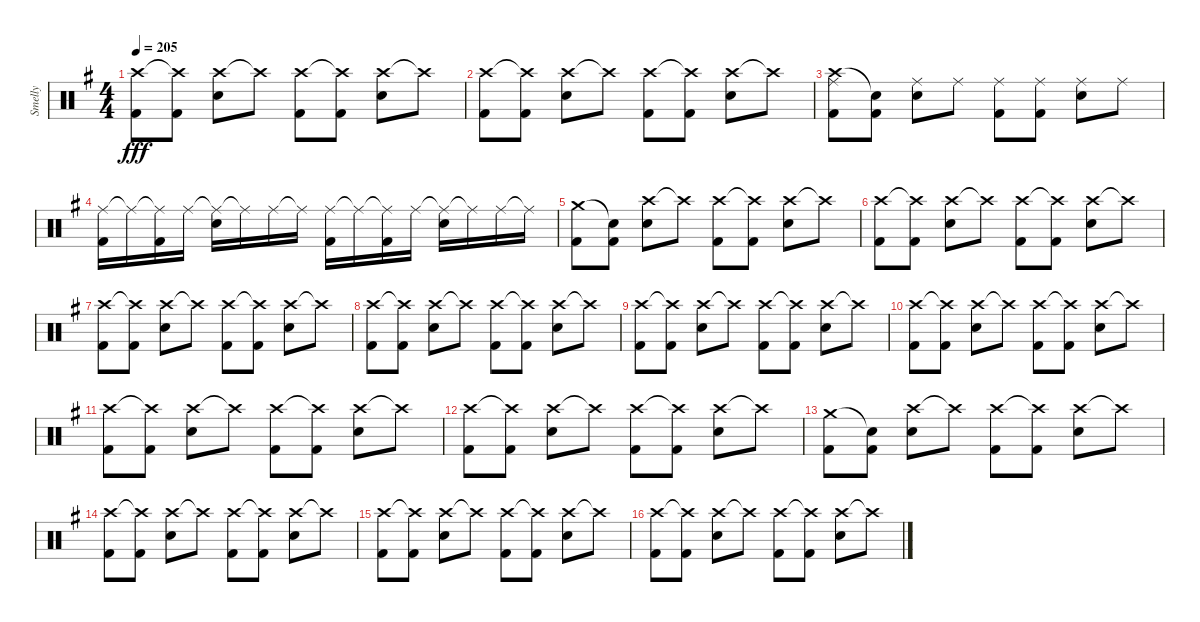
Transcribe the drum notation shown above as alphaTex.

\track ("Smelly" "Smelly") {instrument percussion}
\staff {score}
\articulation defaults
\ts (4 4)
\tempo 205
\clef neutral
\ks eminor
("Crash high (hit)" "Kick (hit) 2").8{dy fff} ("Crash high (hit)"{t} "Kick (hit) 2").8 ("Crash high (hit)" "Electric Snare (hit)").8 "Crash high (hit)"{t}.8 ("Crash high (hit)" "Kick (hit) 2").8 ("Crash high (hit)"{t} "Kick (hit) 2").8 ("Crash high (hit)" "Electric Snare (hit)").8 "Crash high (hit)"{t}.8 |
("Crash high (hit)" "Kick (hit) 2").8 ("Crash high (hit)"{t} "Kick (hit) 2").8 ("Crash high (hit)" "Electric Snare (hit)").8 "Crash high (hit)"{t}.8 ("Crash high (hit)" "Kick (hit) 2").8 ("Crash high (hit)"{t} "Kick (hit) 2").8 ("Crash high (hit)" "Electric Snare (hit)").8 "Crash high (hit)"{t}.8 |
("Crash high (hit)" "Ride (middle)" "Kick (hit) 2").8 ("Snare (hit)"{t} "Kick (hit) 2").8 ("Ride (middle)" "Electric Snare (hit)").8 "Ride (middle)".8 ("Ride (middle)" "Kick (hit) 2").8 ("Ride (middle)" "Kick (hit) 2").8 ("Ride (middle)" "Electric Snare (hit)").8 "Ride (middle)".8 |
("Ride (middle)" "Kick (hit) 2").16 "Ride (middle)"{t}.16 ("Ride (middle)"{t} "Kick (hit) 2").16 "Ride (middle)".16 ("Ride (middle)"{t} "Electric Snare (hit)").16 "Ride (middle)"{t}.16 "Ride (middle)".16 "Ride (middle)"{t}.16 ("Ride (middle)" "Kick (hit) 2").16 "Ride (middle)"{t}.16 ("Ride (middle)"{t} "Kick (hit) 2").16 "Ride (middle)".16 ("Ride (middle)"{t} "Electric Snare (hit)").16 "Ride (middle)"{t}.16 "Ride (middle)".16 "Ride (middle)"{t}.16 |
("Crash medium (hit)" "Kick (hit) 2").8 ("Snare (hit)"{t} "Kick (hit) 2").8 ("Crash high (hit)" "Electric Snare (hit)").8 "Crash high (hit)"{t}.8 ("Crash high (hit)" "Kick (hit) 2").8 ("Crash high (hit)"{t} "Kick (hit) 2").8 ("Crash high (hit)" "Electric Snare (hit)").8 "Crash high (hit)"{t}.8 |
("Crash high (hit)" "Kick (hit) 2").8 ("Crash high (hit)"{t} "Kick (hit) 2").8 ("Crash high (hit)" "Electric Snare (hit)").8 "Crash high (hit)"{t}.8 ("Crash high (hit)" "Kick (hit) 2").8 ("Crash high (hit)"{t} "Kick (hit) 2").8 ("Crash high (hit)" "Electric Snare (hit)").8 "Crash high (hit)"{t}.8 |
("Crash high (hit)" "Kick (hit) 2").8 ("Crash high (hit)"{t} "Kick (hit) 2").8 ("Crash high (hit)" "Electric Snare (hit)").8 "Crash high (hit)"{t}.8 ("Crash high (hit)" "Kick (hit) 2").8 ("Crash high (hit)"{t} "Kick (hit) 2").8 ("Crash high (hit)" "Electric Snare (hit)").8 "Crash high (hit)"{t}.8 |
("Crash high (hit)" "Kick (hit) 2").8 ("Crash high (hit)"{t} "Kick (hit) 2").8 ("Crash high (hit)" "Electric Snare (hit)").8 "Crash high (hit)"{t}.8 ("Crash high (hit)" "Kick (hit) 2").8 ("Crash high (hit)"{t} "Kick (hit) 2").8 ("Crash high (hit)" "Electric Snare (hit)").8 "Crash high (hit)"{t}.8 |
("Crash high (hit)" "Kick (hit) 2").8 ("Crash high (hit)"{t} "Kick (hit) 2").8 ("Crash high (hit)" "Electric Snare (hit)").8 "Crash high (hit)"{t}.8 ("Crash high (hit)" "Kick (hit) 2").8 ("Crash high (hit)"{t} "Kick (hit) 2").8 ("Crash high (hit)" "Electric Snare (hit)").8 "Crash high (hit)"{t}.8 |
("Crash high (hit)" "Kick (hit) 2").8 ("Crash high (hit)"{t} "Kick (hit) 2").8 ("Crash high (hit)" "Electric Snare (hit)").8 "Crash high (hit)"{t}.8 ("Crash high (hit)" "Kick (hit) 2").8 ("Crash high (hit)"{t} "Kick (hit) 2").8 ("Crash high (hit)" "Electric Snare (hit)").8 "Crash high (hit)"{t}.8 |
("Crash high (hit)" "Kick (hit) 2").8 ("Crash high (hit)"{t} "Kick (hit) 2").8 ("Crash high (hit)" "Electric Snare (hit)").8 "Crash high (hit)"{t}.8 ("Crash high (hit)" "Kick (hit) 2").8 ("Crash high (hit)"{t} "Kick (hit) 2").8 ("Crash high (hit)" "Electric Snare (hit)").8 "Crash high (hit)"{t}.8 |
("Crash high (hit)" "Kick (hit) 2").8 ("Crash high (hit)"{t} "Kick (hit) 2").8 ("Crash high (hit)" "Electric Snare (hit)").8 "Crash high (hit)"{t}.8 ("Crash high (hit)" "Kick (hit) 2").8 ("Crash high (hit)"{t} "Kick (hit) 2").8 ("Crash high (hit)" "Electric Snare (hit)").8 "Crash high (hit)"{t}.8 |
("Crash medium (hit)" "Kick (hit) 2").8 ("Snare (hit)"{t} "Kick (hit) 2").8 ("Crash high (hit)" "Electric Snare (hit)").8 "Crash high (hit)"{t}.8 ("Crash high (hit)" "Kick (hit) 2").8 ("Crash high (hit)"{t} "Kick (hit) 2").8 ("Crash high (hit)" "Electric Snare (hit)").8 "Crash high (hit)"{t}.8 |
("Crash high (hit)" "Kick (hit) 2").8 ("Crash high (hit)"{t} "Kick (hit) 2").8 ("Crash high (hit)" "Electric Snare (hit)").8 "Crash high (hit)"{t}.8 ("Crash high (hit)" "Kick (hit) 2").8 ("Crash high (hit)"{t} "Kick (hit) 2").8 ("Crash high (hit)" "Electric Snare (hit)").8 "Crash high (hit)"{t}.8 |
("Crash high (hit)" "Kick (hit) 2").8 ("Crash high (hit)"{t} "Kick (hit) 2").8 ("Crash high (hit)" "Electric Snare (hit)").8 "Crash high (hit)"{t}.8 ("Crash high (hit)" "Kick (hit) 2").8 ("Crash high (hit)"{t} "Kick (hit) 2").8 ("Crash high (hit)" "Electric Snare (hit)").8 "Crash high (hit)"{t}.8 |
("Crash high (hit)" "Kick (hit) 2").8 ("Crash high (hit)"{t} "Kick (hit) 2").8 ("Crash high (hit)" "Electric Snare (hit)").8 "Crash high (hit)"{t}.8 ("Crash high (hit)" "Kick (hit) 2").8 ("Crash high (hit)"{t} "Kick (hit) 2").8 ("Crash high (hit)" "Electric Snare (hit)").8 "Crash high (hit)"{t}.8
